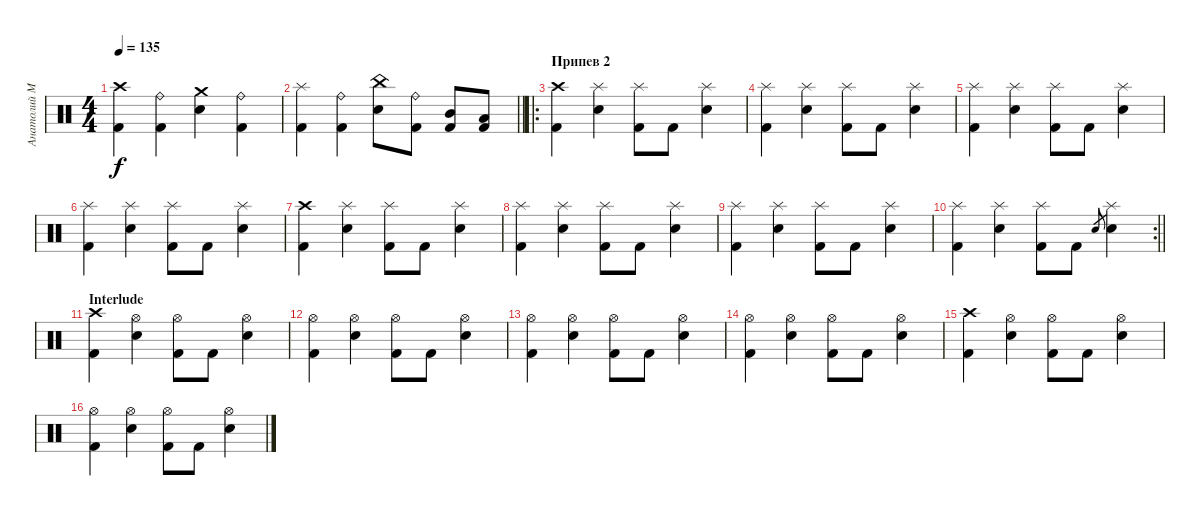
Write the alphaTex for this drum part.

\track ("Анатолий Малиновский" "Анатолий М") {instrument percussion}
\staff {score}
\articulation defaults
\ts (4 4)
\tempo 135
\clef neutral
\ks c
("Crash high (hit)" "Kick (hit) 2").4{dy f} ("Ride (bell)" "Kick (hit) 2").4 ("Crash medium (hit)" "Electric Snare (hit)").4 ("Ride (bell)" "Kick (hit) 2").4 |
\barLineRight lightlight
("Splash (hit)" "Kick (hit) 2").4 ("Ride (bell)" "Kick (hit) 2").4 ("China (hit)" "Electric Snare (hit)").8 ("Ride (bell)" "Kick (hit) 2").8 ("Mid Tom (hit)" "Kick (hit) 2").8 ("Low Tom (hit)" "Kick (hit) 2").8 |
\ro
\section ("" "Припев 2")
("Crash high (hit)" "Kick (hit) 2").4 ("Splash (hit)" "Electric Snare (hit)").4 ("Splash (hit)" "Kick (hit) 2").8 "Kick (hit) 2".8 ("Splash (hit)" "Electric Snare (hit)").4 |
("Splash (hit)" "Kick (hit) 2").4 ("Splash (hit)" "Electric Snare (hit)").4 ("Splash (hit)" "Kick (hit) 2").8 "Kick (hit) 2".8 ("Splash (hit)" "Electric Snare (hit)").4 |
("Splash (hit)" "Kick (hit) 2").4 ("Splash (hit)" "Electric Snare (hit)").4 ("Splash (hit)" "Kick (hit) 2").8 "Kick (hit) 2".8 ("Splash (hit)" "Electric Snare (hit)").4 |
("Splash (hit)" "Kick (hit) 2").4 ("Splash (hit)" "Electric Snare (hit)").4 ("Splash (hit)" "Kick (hit) 2").8 "Kick (hit) 2".8 ("Splash (hit)" "Electric Snare (hit)").4 |
("Crash high (hit)" "Kick (hit) 2").4 ("Splash (hit)" "Electric Snare (hit)").4 ("Splash (hit)" "Kick (hit) 2").8 "Kick (hit) 2".8 ("Splash (hit)" "Electric Snare (hit)").4 |
("Splash (hit)" "Kick (hit) 2").4 ("Splash (hit)" "Electric Snare (hit)").4 ("Splash (hit)" "Kick (hit) 2").8 "Kick (hit) 2".8 ("Splash (hit)" "Electric Snare (hit)").4 |
("Splash (hit)" "Kick (hit) 2").4 ("Splash (hit)" "Electric Snare (hit)").4 ("Splash (hit)" "Kick (hit) 2").8 "Kick (hit) 2".8 ("Splash (hit)" "Electric Snare (hit)").4 |
\rc 2
\barLineRight lightlight
("Splash (hit)" "Kick (hit) 2").4 ("Splash (hit)" "Electric Snare (hit)").4 ("Splash (hit)" "Kick (hit) 2").8 "Kick (hit) 2".8 "Electric Snare (hit)".8{gr} ("Splash (hit)" "Electric Snare (hit)").4 |
\section ("" "Interlude")
("Crash high (hit)" "Kick (hit) 2").4 ("Hi-Hat (open)" "Electric Snare (hit)").4 ("Hi-Hat (open)" "Kick (hit) 2").8 "Kick (hit) 2".8 ("Hi-Hat (open)" "Electric Snare (hit)").4 |
("Hi-Hat (open)" "Kick (hit) 2").4 ("Hi-Hat (open)" "Electric Snare (hit)").4 ("Hi-Hat (open)" "Kick (hit) 2").8 "Kick (hit) 2".8 ("Hi-Hat (open)" "Electric Snare (hit)").4 |
("Hi-Hat (open)" "Kick (hit) 2").4 ("Hi-Hat (open)" "Electric Snare (hit)").4 ("Hi-Hat (open)" "Kick (hit) 2").8 "Kick (hit) 2".8 ("Hi-Hat (open)" "Electric Snare (hit)").4 |
("Hi-Hat (open)" "Kick (hit) 2").4 ("Hi-Hat (open)" "Electric Snare (hit)").4 ("Hi-Hat (open)" "Kick (hit) 2").8 "Kick (hit) 2".8 ("Hi-Hat (open)" "Electric Snare (hit)").4 |
("Crash high (hit)" "Kick (hit) 2").4 ("Hi-Hat (open)" "Electric Snare (hit)").4 ("Hi-Hat (open)" "Kick (hit) 2").8 "Kick (hit) 2".8 ("Hi-Hat (open)" "Electric Snare (hit)").4 |
("Hi-Hat (open)" "Kick (hit) 2").4 ("Hi-Hat (open)" "Electric Snare (hit)").4 ("Hi-Hat (open)" "Kick (hit) 2").8 "Kick (hit) 2".8 ("Hi-Hat (open)" "Electric Snare (hit)").4
